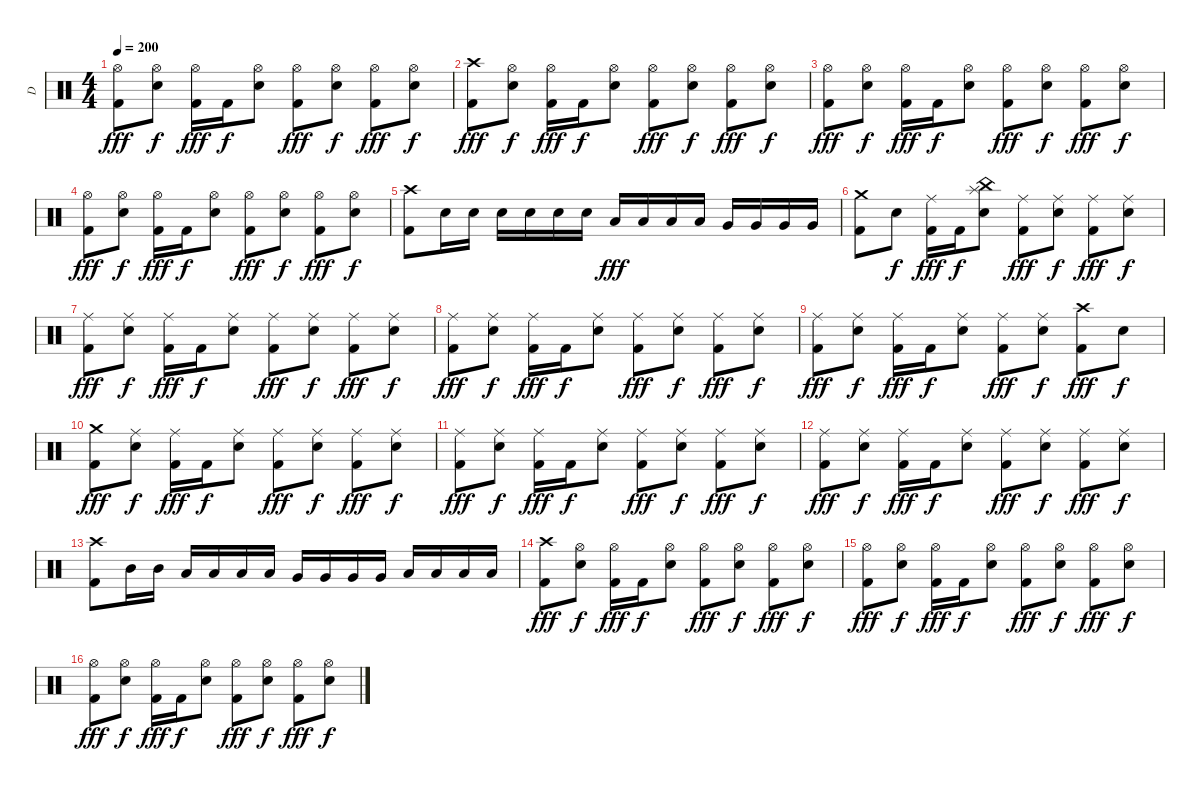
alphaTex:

\track ("D" "D") {instrument percussion}
\staff {score}
\articulation defaults
\ts (4 4)
\tempo 200
\clef neutral
\ks c
("Hi-Hat (open)" "Kick (hit) 2").8{dy fff} ("Hi-Hat (open)" "Electric Snare (hit)").8{dy f} ("Hi-Hat (open)" "Kick (hit) 2").16{dy fff} "Kick (hit) 2".16{dy f} ("Hi-Hat (open)" "Electric Snare (hit)").8 ("Hi-Hat (open)" "Kick (hit) 2").8{dy fff} ("Hi-Hat (open)" "Electric Snare (hit)").8{dy f} ("Hi-Hat (open)" "Kick (hit) 2").8{dy fff} ("Hi-Hat (open)" "Electric Snare (hit)").8{dy f} |
("Crash high (hit)" "Kick (hit) 2").8{dy fff} ("Hi-Hat (open)" "Electric Snare (hit)").8{dy f} ("Hi-Hat (open)" "Kick (hit) 2").16{dy fff} "Kick (hit) 2".16{dy f} ("Hi-Hat (open)" "Electric Snare (hit)").8 ("Hi-Hat (open)" "Kick (hit) 2").8{dy fff} ("Hi-Hat (open)" "Electric Snare (hit)").8{dy f} ("Hi-Hat (open)" "Kick (hit) 2").8{dy fff} ("Hi-Hat (open)" "Electric Snare (hit)").8{dy f} |
("Hi-Hat (open)" "Kick (hit) 2").8{dy fff} ("Hi-Hat (open)" "Electric Snare (hit)").8{dy f} ("Hi-Hat (open)" "Kick (hit) 2").16{dy fff} "Kick (hit) 2".16{dy f} ("Hi-Hat (open)" "Electric Snare (hit)").8 ("Hi-Hat (open)" "Kick (hit) 2").8{dy fff} ("Hi-Hat (open)" "Electric Snare (hit)").8{dy f} ("Hi-Hat (open)" "Kick (hit) 2").8{dy fff} ("Hi-Hat (open)" "Electric Snare (hit)").8{dy f} |
("Hi-Hat (open)" "Kick (hit) 2").8{dy fff} ("Hi-Hat (open)" "Electric Snare (hit)").8{dy f} ("Hi-Hat (open)" "Kick (hit) 2").16{dy fff} "Kick (hit) 2".16{dy f} ("Hi-Hat (open)" "Electric Snare (hit)").8 ("Hi-Hat (open)" "Kick (hit) 2").8{dy fff} ("Hi-Hat (open)" "Electric Snare (hit)").8{dy f} ("Hi-Hat (open)" "Kick (hit) 2").8{dy fff} ("Hi-Hat (open)" "Electric Snare (hit)").8{dy f} |
("Crash high (hit)" "Kick (hit) 2").8 "Electric Snare (hit)".16 "Electric Snare (hit)".16 "Electric Snare (hit)".16 "Electric Snare (hit)".16 "Electric Snare (hit)".16 "Electric Snare (hit)".16 "Low Tom (hit)".16{dy fff} "Low Tom (hit)".16 "Low Tom (hit)".16 "Low Tom (hit)".16 "Very Low Tom (hit)".16 "Very Low Tom (hit)".16 "Very Low Tom (hit)".16 "Very Low Tom (hit)".16 |
("Crash medium (hit)" "Kick (hit) 2").8 "Electric Snare (hit)".8{dy f} ("Ride (middle)" "Kick (hit) 2").16{dy fff} "Kick (hit) 2".16{dy f} ("Splash (hit)" "China (hit)" "Electric Snare (hit)").8 ("Ride (middle)" "Kick (hit) 2").8{dy fff} ("Ride (middle)" "Electric Snare (hit)").8{dy f} ("Ride (middle)" "Kick (hit) 2").8{dy fff} ("Ride (middle)" "Electric Snare (hit)").8{dy f} |
("Ride (middle)" "Kick (hit) 2").8{dy fff} ("Ride (middle)" "Electric Snare (hit)").8{dy f} ("Ride (middle)" "Kick (hit) 2").16{dy fff} "Kick (hit) 2".16{dy f} ("Ride (middle)" "Electric Snare (hit)").8 ("Ride (middle)" "Kick (hit) 2").8{dy fff} ("Ride (middle)" "Electric Snare (hit)").8{dy f} ("Ride (middle)" "Kick (hit) 2").8{dy fff} ("Ride (middle)" "Electric Snare (hit)").8{dy f} |
("Ride (middle)" "Kick (hit) 2").8{dy fff} ("Ride (middle)" "Electric Snare (hit)").8{dy f} ("Ride (middle)" "Kick (hit) 2").16{dy fff} "Kick (hit) 2".16{dy f} ("Ride (middle)" "Electric Snare (hit)").8 ("Ride (middle)" "Kick (hit) 2").8{dy fff} ("Ride (middle)" "Electric Snare (hit)").8{dy f} ("Ride (middle)" "Kick (hit) 2").8{dy fff} ("Ride (middle)" "Electric Snare (hit)").8{dy f} |
("Ride (middle)" "Kick (hit) 2").8{dy fff} ("Ride (middle)" "Electric Snare (hit)").8{dy f} ("Ride (middle)" "Kick (hit) 2").16{dy fff} "Kick (hit) 2".16{dy f} ("Ride (middle)" "Electric Snare (hit)").8 ("Ride (middle)" "Kick (hit) 2").8{dy fff} ("Ride (middle)" "Electric Snare (hit)").8{dy f} ("Crash high (hit)" "Kick (hit) 2").8{dy fff} "Electric Snare (hit)".8{dy f} |
("Crash medium (hit)" "Kick (hit) 2").8{dy fff} ("Ride (middle)" "Electric Snare (hit)").8{dy f} ("Ride (middle)" "Kick (hit) 2").16{dy fff} "Kick (hit) 2".16{dy f} ("Ride (middle)" "Electric Snare (hit)").8 ("Ride (middle)" "Kick (hit) 2").8{dy fff} ("Ride (middle)" "Electric Snare (hit)").8{dy f} ("Ride (middle)" "Kick (hit) 2").8{dy fff} ("Ride (middle)" "Electric Snare (hit)").8{dy f} |
("Ride (middle)" "Kick (hit) 2").8{dy fff} ("Ride (middle)" "Electric Snare (hit)").8{dy f} ("Ride (middle)" "Kick (hit) 2").16{dy fff} "Kick (hit) 2".16{dy f} ("Ride (middle)" "Electric Snare (hit)").8 ("Ride (middle)" "Kick (hit) 2").8{dy fff} ("Ride (middle)" "Electric Snare (hit)").8{dy f} ("Ride (middle)" "Kick (hit) 2").8{dy fff} ("Ride (middle)" "Electric Snare (hit)").8{dy f} |
("Ride (middle)" "Kick (hit) 2").8{dy fff} ("Ride (middle)" "Electric Snare (hit)").8{dy f} ("Ride (middle)" "Kick (hit) 2").16{dy fff} "Kick (hit) 2".16{dy f} ("Ride (middle)" "Electric Snare (hit)").8 ("Ride (middle)" "Kick (hit) 2").8{dy fff} ("Ride (middle)" "Electric Snare (hit)").8{dy f} ("Ride (middle)" "Kick (hit) 2").8{dy fff} ("Ride (middle)" "Electric Snare (hit)").8{dy f} |
("Crash high (hit)" "Kick (hit) 2").8 "Mid Tom (hit)".16 "Mid Tom (hit)".16 "Low Tom (hit)".16 "Low Tom (hit)".16 "Low Tom (hit)".16 "Low Tom (hit)".16 "Very Low Tom (hit)".16 "Very Low Tom (hit)".16 "Very Low Tom (hit)".16 "Very Low Tom (hit)".16 "Low Floor Tom (hit)".16 "Low Floor Tom (hit)".16 "Low Floor Tom (hit)".16 "Low Floor Tom (hit)".16 |
("Crash high (hit)" "Kick (hit) 2").8{dy fff} ("Hi-Hat (open)" "Electric Snare (hit)").8{dy f} ("Hi-Hat (open)" "Kick (hit) 2").16{dy fff} "Kick (hit) 2".16{dy f} ("Hi-Hat (open)" "Electric Snare (hit)").8 ("Hi-Hat (open)" "Kick (hit) 2").8{dy fff} ("Hi-Hat (open)" "Electric Snare (hit)").8{dy f} ("Hi-Hat (open)" "Kick (hit) 2").8{dy fff} ("Hi-Hat (open)" "Electric Snare (hit)").8{dy f} |
("Hi-Hat (open)" "Kick (hit) 2").8{dy fff} ("Hi-Hat (open)" "Electric Snare (hit)").8{dy f} ("Hi-Hat (open)" "Kick (hit) 2").16{dy fff} "Kick (hit) 2".16{dy f} ("Hi-Hat (open)" "Electric Snare (hit)").8 ("Hi-Hat (open)" "Kick (hit) 2").8{dy fff} ("Hi-Hat (open)" "Electric Snare (hit)").8{dy f} ("Hi-Hat (open)" "Kick (hit) 2").8{dy fff} ("Hi-Hat (open)" "Electric Snare (hit)").8{dy f} |
("Hi-Hat (open)" "Kick (hit) 2").8{dy fff} ("Hi-Hat (open)" "Electric Snare (hit)").8{dy f} ("Hi-Hat (open)" "Kick (hit) 2").16{dy fff} "Kick (hit) 2".16{dy f} ("Hi-Hat (open)" "Electric Snare (hit)").8 ("Hi-Hat (open)" "Kick (hit) 2").8{dy fff} ("Hi-Hat (open)" "Electric Snare (hit)").8{dy f} ("Hi-Hat (open)" "Kick (hit) 2").8{dy fff} ("Hi-Hat (open)" "Electric Snare (hit)").8{dy f}
